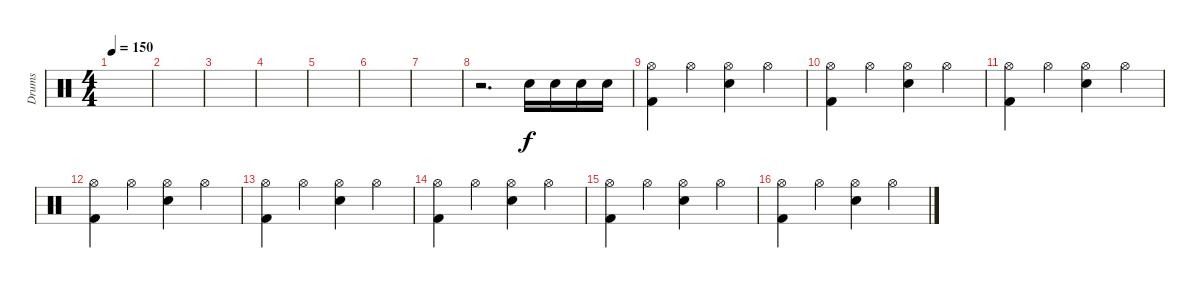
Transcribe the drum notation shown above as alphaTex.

\track ("Drums" "Drums") {instrument percussion}
\staff {score}
\articulation defaults
\ts (4 4)
\tempo 150
\clef neutral
\ks c
|
|
|
|
|
|
|
r.2{d} "Electric Snare (hit)".16 "Electric Snare (hit)".16 "Electric Snare (hit)".16 "Electric Snare (hit)".16 |
("Hi-Hat (open)" "Kick (hit) 2").4 "Hi-Hat (open)".4 ("Hi-Hat (open)" "Electric Snare (hit)").4 "Hi-Hat (open)".4 |
("Hi-Hat (open)" "Kick (hit) 2").4 "Hi-Hat (open)".4 ("Hi-Hat (open)" "Electric Snare (hit)").4 "Hi-Hat (open)".4 |
("Hi-Hat (open)" "Kick (hit) 2").4 "Hi-Hat (open)".4 ("Hi-Hat (open)" "Electric Snare (hit)").4 "Hi-Hat (open)".4 |
("Hi-Hat (open)" "Kick (hit) 2").4 "Hi-Hat (open)".4 ("Hi-Hat (open)" "Electric Snare (hit)").4 "Hi-Hat (open)".4 |
("Hi-Hat (open)" "Kick (hit) 2").4 "Hi-Hat (open)".4 ("Hi-Hat (open)" "Electric Snare (hit)").4 "Hi-Hat (open)".4 |
("Hi-Hat (open)" "Kick (hit) 2").4 "Hi-Hat (open)".4 ("Hi-Hat (open)" "Electric Snare (hit)").4 "Hi-Hat (open)".4 |
("Hi-Hat (open)" "Kick (hit) 2").4 "Hi-Hat (open)".4 ("Hi-Hat (open)" "Electric Snare (hit)").4 "Hi-Hat (open)".4 |
("Hi-Hat (open)" "Kick (hit) 2").4 "Hi-Hat (open)".4 ("Hi-Hat (open)" "Electric Snare (hit)").4 "Hi-Hat (open)".4
